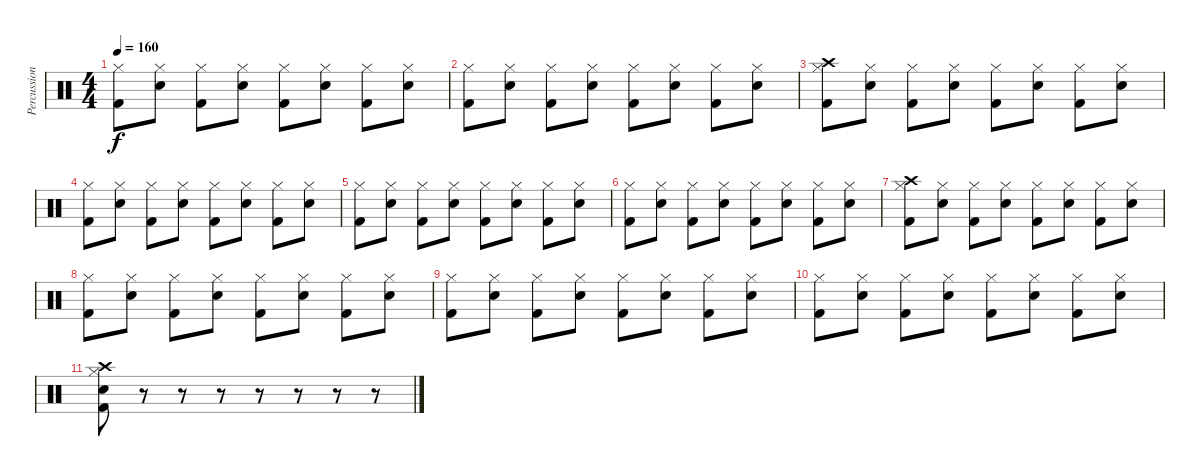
\track ("Percussion" "Percussion") {instrument percussion}
\staff {score}
\articulation defaults
\ts (4 4)
\tempo 160
\clef neutral
\ks c
("Hi-Hat (closed)" "Kick (hit) 2").8{dy f} ("Hi-Hat (closed)" "Electric Snare (hit)").8 ("Hi-Hat (closed)" "Kick (hit) 2").8 ("Hi-Hat (closed)" "Electric Snare (hit)").8 ("Hi-Hat (closed)" "Kick (hit) 2").8 ("Hi-Hat (closed)" "Electric Snare (hit)").8 ("Hi-Hat (closed)" "Kick (hit) 2").8 ("Hi-Hat (closed)" "Electric Snare (hit)").8 |
("Hi-Hat (closed)" "Kick (hit) 2").8 ("Hi-Hat (closed)" "Electric Snare (hit)").8 ("Hi-Hat (closed)" "Kick (hit) 2").8 ("Hi-Hat (closed)" "Electric Snare (hit)").8 ("Hi-Hat (closed)" "Kick (hit) 2").8 ("Hi-Hat (closed)" "Electric Snare (hit)").8 ("Hi-Hat (closed)" "Kick (hit) 2").8 ("Hi-Hat (closed)" "Electric Snare (hit)").8 |
("Hi-Hat (closed)" "Crash high (hit)" "Kick (hit) 2").8 ("Hi-Hat (closed)" "Electric Snare (hit)").8 ("Hi-Hat (closed)" "Kick (hit) 2").8 ("Hi-Hat (closed)" "Electric Snare (hit)").8 ("Hi-Hat (closed)" "Kick (hit) 2").8 ("Hi-Hat (closed)" "Electric Snare (hit)").8 ("Hi-Hat (closed)" "Kick (hit) 2").8 ("Hi-Hat (closed)" "Electric Snare (hit)").8 |
("Hi-Hat (closed)" "Kick (hit) 2").8 ("Hi-Hat (closed)" "Electric Snare (hit)").8 ("Hi-Hat (closed)" "Kick (hit) 2").8 ("Hi-Hat (closed)" "Electric Snare (hit)").8 ("Hi-Hat (closed)" "Kick (hit) 2").8 ("Hi-Hat (closed)" "Electric Snare (hit)").8 ("Hi-Hat (closed)" "Kick (hit) 2").8 ("Hi-Hat (closed)" "Electric Snare (hit)").8 |
("Hi-Hat (closed)" "Kick (hit) 2").8 ("Hi-Hat (closed)" "Electric Snare (hit)").8 ("Hi-Hat (closed)" "Kick (hit) 2").8 ("Hi-Hat (closed)" "Electric Snare (hit)").8 ("Hi-Hat (closed)" "Kick (hit) 2").8 ("Hi-Hat (closed)" "Electric Snare (hit)").8 ("Hi-Hat (closed)" "Kick (hit) 2").8 ("Hi-Hat (closed)" "Electric Snare (hit)").8 |
("Hi-Hat (closed)" "Kick (hit) 2").8 ("Hi-Hat (closed)" "Electric Snare (hit)").8 ("Hi-Hat (closed)" "Kick (hit) 2").8 ("Hi-Hat (closed)" "Electric Snare (hit)").8 ("Hi-Hat (closed)" "Kick (hit) 2").8 ("Hi-Hat (closed)" "Electric Snare (hit)").8 ("Hi-Hat (closed)" "Kick (hit) 2").8 ("Hi-Hat (closed)" "Electric Snare (hit)").8 |
("Hi-Hat (closed)" "Crash high (hit)" "Kick (hit) 2").8 ("Hi-Hat (closed)" "Electric Snare (hit)").8 ("Hi-Hat (closed)" "Kick (hit) 2").8 ("Hi-Hat (closed)" "Electric Snare (hit)").8 ("Hi-Hat (closed)" "Kick (hit) 2").8 ("Hi-Hat (closed)" "Electric Snare (hit)").8 ("Hi-Hat (closed)" "Kick (hit) 2").8 ("Hi-Hat (closed)" "Electric Snare (hit)").8 |
("Hi-Hat (closed)" "Kick (hit) 2").8 ("Hi-Hat (closed)" "Electric Snare (hit)").8 ("Hi-Hat (closed)" "Kick (hit) 2").8 ("Hi-Hat (closed)" "Electric Snare (hit)").8 ("Hi-Hat (closed)" "Kick (hit) 2").8 ("Hi-Hat (closed)" "Electric Snare (hit)").8 ("Hi-Hat (closed)" "Kick (hit) 2").8 ("Hi-Hat (closed)" "Electric Snare (hit)").8 |
("Hi-Hat (closed)" "Kick (hit) 2").8 ("Hi-Hat (closed)" "Electric Snare (hit)").8 ("Hi-Hat (closed)" "Kick (hit) 2").8 ("Hi-Hat (closed)" "Electric Snare (hit)").8 ("Hi-Hat (closed)" "Kick (hit) 2").8 ("Hi-Hat (closed)" "Electric Snare (hit)").8 ("Hi-Hat (closed)" "Kick (hit) 2").8 ("Hi-Hat (closed)" "Electric Snare (hit)").8 |
("Hi-Hat (closed)" "Kick (hit) 2").8 ("Hi-Hat (closed)" "Electric Snare (hit)").8 ("Hi-Hat (closed)" "Kick (hit) 2").8 ("Hi-Hat (closed)" "Electric Snare (hit)").8 ("Hi-Hat (closed)" "Kick (hit) 2").8 ("Hi-Hat (closed)" "Electric Snare (hit)").8 ("Hi-Hat (closed)" "Kick (hit) 2").8 ("Hi-Hat (closed)" "Electric Snare (hit)").8 |
("Hi-Hat (closed)" "Electric Snare (hit)" "Kick (hit) 2" "Crash high (hit)").8 r.8 r.8 r.8 r.8 r.8 r.8 r.8
